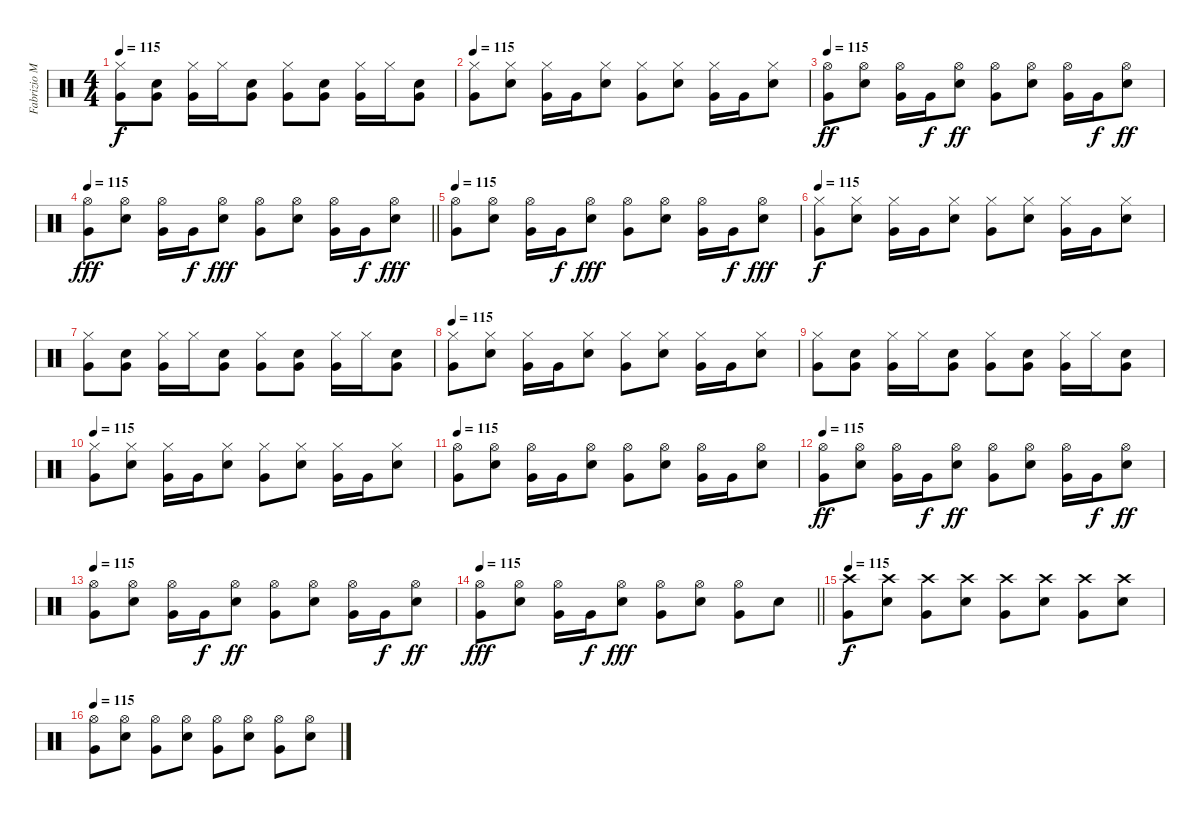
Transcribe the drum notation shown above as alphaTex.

\track ("Fabrizio Moretti" "Fabrizio M") {instrument percussion}
\staff {score}
\articulation defaults
\ts (4 4)
\tempo 115
\clef neutral
\ks c
("Very Low Tom (hit)" "Hi-Hat (closed)").8{dy f} ("Very Low Tom (hit)" "Electric Snare (hit)").8 ("Very Low Tom (hit)" "Hi-Hat (closed)").16 "Hi-Hat (closed)".16 ("Very Low Tom (hit)" "Electric Snare (hit)").8 ("Very Low Tom (hit)" "Hi-Hat (closed)").8 ("Very Low Tom (hit)" "Electric Snare (hit)").8 ("Very Low Tom (hit)" "Hi-Hat (closed)").16 "Hi-Hat (closed)".16 ("Very Low Tom (hit)" "Electric Snare (hit)").8 |
\tempo 115
("Very Low Tom (hit)" "Hi-Hat (closed)").8 ("Electric Snare (hit)" "Hi-Hat (closed)").8 ("Very Low Tom (hit)" "Hi-Hat (closed)").16 "Very Low Tom (hit)".16 ("Electric Snare (hit)" "Hi-Hat (closed)").8 ("Very Low Tom (hit)" "Hi-Hat (closed)").8 ("Electric Snare (hit)" "Hi-Hat (closed)").8 ("Very Low Tom (hit)" "Hi-Hat (closed)").16 "Very Low Tom (hit)".16 ("Electric Snare (hit)" "Hi-Hat (closed)").8 |
\tempo 115
("Very Low Tom (hit)" "Hi-Hat (open)").8{dy ff} ("Electric Snare (hit)" "Hi-Hat (open)").8 ("Very Low Tom (hit)" "Hi-Hat (open)").16 "Very Low Tom (hit)".16{dy f} ("Electric Snare (hit)" "Hi-Hat (open)").8{dy ff} ("Very Low Tom (hit)" "Hi-Hat (open)").8 ("Electric Snare (hit)" "Hi-Hat (open)").8 ("Very Low Tom (hit)" "Hi-Hat (open)").16 "Very Low Tom (hit)".16{dy f} ("Electric Snare (hit)" "Hi-Hat (open)").8{dy ff} |
\tempo 115
\barLineRight lightlight
("Very Low Tom (hit)" "Hi-Hat (open)").8{dy fff} ("Electric Snare (hit)" "Hi-Hat (open)").8 ("Very Low Tom (hit)" "Hi-Hat (open)").16 "Very Low Tom (hit)".16{dy f} ("Electric Snare (hit)" "Hi-Hat (open)").8{dy fff} ("Very Low Tom (hit)" "Hi-Hat (open)").8 ("Electric Snare (hit)" "Hi-Hat (open)").8 ("Very Low Tom (hit)" "Hi-Hat (open)").16 "Very Low Tom (hit)".16{dy f} ("Electric Snare (hit)" "Hi-Hat (open)").8{dy fff} |
\tempo 115
("Very Low Tom (hit)" "Hi-Hat (open)").8 ("Electric Snare (hit)" "Hi-Hat (open)").8 ("Very Low Tom (hit)" "Hi-Hat (open)").16 "Very Low Tom (hit)".16{dy f} ("Electric Snare (hit)" "Hi-Hat (open)").8{dy fff} ("Very Low Tom (hit)" "Hi-Hat (open)").8 ("Electric Snare (hit)" "Hi-Hat (open)").8 ("Very Low Tom (hit)" "Hi-Hat (open)").16 "Very Low Tom (hit)".16{dy f} ("Electric Snare (hit)" "Hi-Hat (open)").8{dy fff} |
\tempo 115
("Very Low Tom (hit)" "Hi-Hat (closed)").8{dy f} ("Electric Snare (hit)" "Hi-Hat (closed)").8 ("Very Low Tom (hit)" "Hi-Hat (closed)").16 "Very Low Tom (hit)".16 ("Electric Snare (hit)" "Hi-Hat (closed)").8 ("Very Low Tom (hit)" "Hi-Hat (closed)").8 ("Electric Snare (hit)" "Hi-Hat (closed)").8 ("Very Low Tom (hit)" "Hi-Hat (closed)").16 "Very Low Tom (hit)".16 ("Electric Snare (hit)" "Hi-Hat (closed)").8 |
("Very Low Tom (hit)" "Hi-Hat (closed)").8 ("Very Low Tom (hit)" "Electric Snare (hit)").8 ("Very Low Tom (hit)" "Hi-Hat (closed)").16 "Hi-Hat (closed)".16 ("Very Low Tom (hit)" "Electric Snare (hit)").8 ("Very Low Tom (hit)" "Hi-Hat (closed)").8 ("Very Low Tom (hit)" "Electric Snare (hit)").8 ("Very Low Tom (hit)" "Hi-Hat (closed)").16 "Hi-Hat (closed)".16 ("Very Low Tom (hit)" "Electric Snare (hit)").8 |
\tempo 115
("Very Low Tom (hit)" "Hi-Hat (closed)").8 ("Electric Snare (hit)" "Hi-Hat (closed)").8 ("Very Low Tom (hit)" "Hi-Hat (closed)").16 "Very Low Tom (hit)".16 ("Electric Snare (hit)" "Hi-Hat (closed)").8 ("Very Low Tom (hit)" "Hi-Hat (closed)").8 ("Electric Snare (hit)" "Hi-Hat (closed)").8 ("Very Low Tom (hit)" "Hi-Hat (closed)").16 "Very Low Tom (hit)".16 ("Electric Snare (hit)" "Hi-Hat (closed)").8 |
("Very Low Tom (hit)" "Hi-Hat (closed)").8 ("Very Low Tom (hit)" "Electric Snare (hit)").8 ("Very Low Tom (hit)" "Hi-Hat (closed)").16 "Hi-Hat (closed)".16 ("Very Low Tom (hit)" "Electric Snare (hit)").8 ("Very Low Tom (hit)" "Hi-Hat (closed)").8 ("Very Low Tom (hit)" "Electric Snare (hit)").8 ("Very Low Tom (hit)" "Hi-Hat (closed)").16 "Hi-Hat (closed)".16 ("Very Low Tom (hit)" "Electric Snare (hit)").8 |
\tempo 115
("Very Low Tom (hit)" "Hi-Hat (closed)").8 ("Electric Snare (hit)" "Hi-Hat (closed)").8 ("Very Low Tom (hit)" "Hi-Hat (closed)").16 "Very Low Tom (hit)".16 ("Electric Snare (hit)" "Hi-Hat (closed)").8 ("Very Low Tom (hit)" "Hi-Hat (closed)").8 ("Electric Snare (hit)" "Hi-Hat (closed)").8 ("Very Low Tom (hit)" "Hi-Hat (closed)").16 "Very Low Tom (hit)".16 ("Electric Snare (hit)" "Hi-Hat (closed)").8 |
\tempo 115
("Very Low Tom (hit)" "Hi-Hat (open)").8 ("Electric Snare (hit)" "Hi-Hat (open)").8 ("Very Low Tom (hit)" "Hi-Hat (open)").16 "Very Low Tom (hit)".16 ("Electric Snare (hit)" "Hi-Hat (open)").8 ("Very Low Tom (hit)" "Hi-Hat (open)").8 ("Electric Snare (hit)" "Hi-Hat (open)").8 ("Very Low Tom (hit)" "Hi-Hat (open)").16 "Very Low Tom (hit)".16 ("Electric Snare (hit)" "Hi-Hat (open)").8 |
\tempo 115
("Very Low Tom (hit)" "Hi-Hat (open)").8{dy ff} ("Electric Snare (hit)" "Hi-Hat (open)").8 ("Very Low Tom (hit)" "Hi-Hat (open)").16 "Very Low Tom (hit)".16{dy f} ("Electric Snare (hit)" "Hi-Hat (open)").8{dy ff} ("Very Low Tom (hit)" "Hi-Hat (open)").8 ("Electric Snare (hit)" "Hi-Hat (open)").8 ("Very Low Tom (hit)" "Hi-Hat (open)").16 "Very Low Tom (hit)".16{dy f} ("Electric Snare (hit)" "Hi-Hat (open)").8{dy ff} |
\tempo 115
("Very Low Tom (hit)" "Hi-Hat (open)").8 ("Electric Snare (hit)" "Hi-Hat (open)").8 ("Very Low Tom (hit)" "Hi-Hat (open)").16 "Very Low Tom (hit)".16{dy f} ("Electric Snare (hit)" "Hi-Hat (open)").8{dy ff} ("Very Low Tom (hit)" "Hi-Hat (open)").8 ("Electric Snare (hit)" "Hi-Hat (open)").8 ("Very Low Tom (hit)" "Hi-Hat (open)").16 "Very Low Tom (hit)".16{dy f} ("Electric Snare (hit)" "Hi-Hat (open)").8{dy ff} |
\tempo 115
\barLineRight lightlight
("Very Low Tom (hit)" "Hi-Hat (open)").8{dy fff} ("Electric Snare (hit)" "Hi-Hat (open)").8 ("Very Low Tom (hit)" "Hi-Hat (open)").16 "Very Low Tom (hit)".16{dy f} ("Electric Snare (hit)" "Hi-Hat (open)").8{dy fff} ("Very Low Tom (hit)" "Hi-Hat (open)").8 ("Electric Snare (hit)" "Hi-Hat (open)").8 ("Very Low Tom (hit)" "Hi-Hat (open)").8 "Electric Snare (hit)".8 |
\tempo 115
("Very Low Tom (hit)" "Crash high (hit)").8{dy f} ("Electric Snare (hit)" "Crash high (hit)").8 ("Very Low Tom (hit)" "Crash high (hit)").8 ("Electric Snare (hit)" "Crash high (hit)").8 ("Very Low Tom (hit)" "Crash high (hit)").8 ("Electric Snare (hit)" "Crash high (hit)").8 ("Very Low Tom (hit)" "Crash high (hit)").8 ("Electric Snare (hit)" "Crash high (hit)").8 |
\tempo 115
("Very Low Tom (hit)" "Hi-Hat (open)").8 ("Electric Snare (hit)" "Hi-Hat (open)").8 ("Very Low Tom (hit)" "Hi-Hat (open)").8 ("Electric Snare (hit)" "Hi-Hat (open)").8 ("Very Low Tom (hit)" "Hi-Hat (open)").8 ("Electric Snare (hit)" "Hi-Hat (open)").8 ("Very Low Tom (hit)" "Hi-Hat (open)").8 ("Electric Snare (hit)" "Hi-Hat (open)").8
